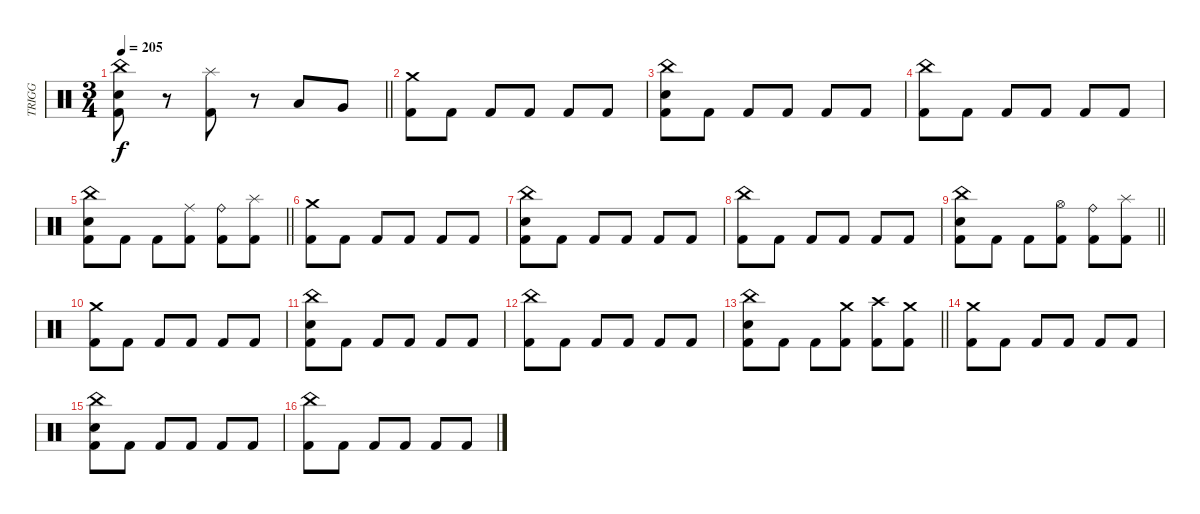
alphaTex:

\track ("TRIGG" "TRIGG") {instrument percussion}
\staff {score}
\articulation defaults
\ts (3 4)
\tempo 205
\clef neutral
\barLineRight lightlight
\ks c
("China (hit)" "Electric Snare (hit)" "Kick (hit) 2").8{dy f} r.8 ("Splash (hit)" "Kick (hit) 2").8 r.8 "Low Tom (hit)".8 "Very Low Tom (hit)".8 |
("Crash medium (hit)" "Kick (hit) 2").8 "Kick (hit) 2".8 "Kick (hit) 2".8 "Kick (hit) 2".8 "Kick (hit) 2".8 "Kick (hit) 2".8 |
("China (hit)" "Electric Snare (hit)" "Kick (hit) 2").8 "Kick (hit) 2".8 "Kick (hit) 2".8 "Kick (hit) 2".8 "Kick (hit) 2".8 "Kick (hit) 2".8 |
("China (hit)" "Kick (hit) 2").8 "Kick (hit) 2".8 "Kick (hit) 2".8 "Kick (hit) 2".8 "Kick (hit) 2".8 "Kick (hit) 2".8 |
\barLineRight lightlight
("China (hit)" "Electric Snare (hit)" "Kick (hit) 2").8 "Kick (hit) 2".8 "Kick (hit) 2".8 ("Ride (middle)" "Kick (hit) 2").8 ("Ride (bell)" "Kick (hit) 2").8 ("Splash (hit)" "Kick (hit) 2").8 |
("Crash medium (hit)" "Kick (hit) 2").8 "Kick (hit) 2".8 "Kick (hit) 2".8 "Kick (hit) 2".8 "Kick (hit) 2".8 "Kick (hit) 2".8 |
("China (hit)" "Electric Snare (hit)" "Kick (hit) 2").8 "Kick (hit) 2".8 "Kick (hit) 2".8 "Kick (hit) 2".8 "Kick (hit) 2".8 "Kick (hit) 2".8 |
("China (hit)" "Kick (hit) 2").8 "Kick (hit) 2".8 "Kick (hit) 2".8 "Kick (hit) 2".8 "Kick (hit) 2".8 "Kick (hit) 2".8 |
\barLineRight lightlight
("China (hit)" "Electric Snare (hit)" "Kick (hit) 2").8 "Kick (hit) 2".8 "Kick (hit) 2".8 ("Hi-Hat (open)" "Kick (hit) 2").8 ("Ride (bell)" "Kick (hit) 2").8 ("Splash (hit)" "Kick (hit) 2").8 |
("Crash medium (hit)" "Kick (hit) 2").8 "Kick (hit) 2".8 "Kick (hit) 2".8 "Kick (hit) 2".8 "Kick (hit) 2".8 "Kick (hit) 2".8 |
("China (hit)" "Electric Snare (hit)" "Kick (hit) 2").8 "Kick (hit) 2".8 "Kick (hit) 2".8 "Kick (hit) 2".8 "Kick (hit) 2".8 "Kick (hit) 2".8 |
("China (hit)" "Kick (hit) 2").8 "Kick (hit) 2".8 "Kick (hit) 2".8 "Kick (hit) 2".8 "Kick (hit) 2".8 "Kick (hit) 2".8 |
\barLineRight lightlight
("China (hit)" "Electric Snare (hit)" "Kick (hit) 2").8 "Kick (hit) 2".8 "Kick (hit) 2".8 ("Crash medium (hit)" "Kick (hit) 2").8 ("Crash high (hit)" "Kick (hit) 2").8 ("Crash medium (hit)" "Kick (hit) 2").8 |
("Crash medium (hit)" "Kick (hit) 2").8 "Kick (hit) 2".8 "Kick (hit) 2".8 "Kick (hit) 2".8 "Kick (hit) 2".8 "Kick (hit) 2".8 |
("China (hit)" "Electric Snare (hit)" "Kick (hit) 2").8 "Kick (hit) 2".8 "Kick (hit) 2".8 "Kick (hit) 2".8 "Kick (hit) 2".8 "Kick (hit) 2".8 |
("China (hit)" "Kick (hit) 2").8 "Kick (hit) 2".8 "Kick (hit) 2".8 "Kick (hit) 2".8 "Kick (hit) 2".8 "Kick (hit) 2".8
